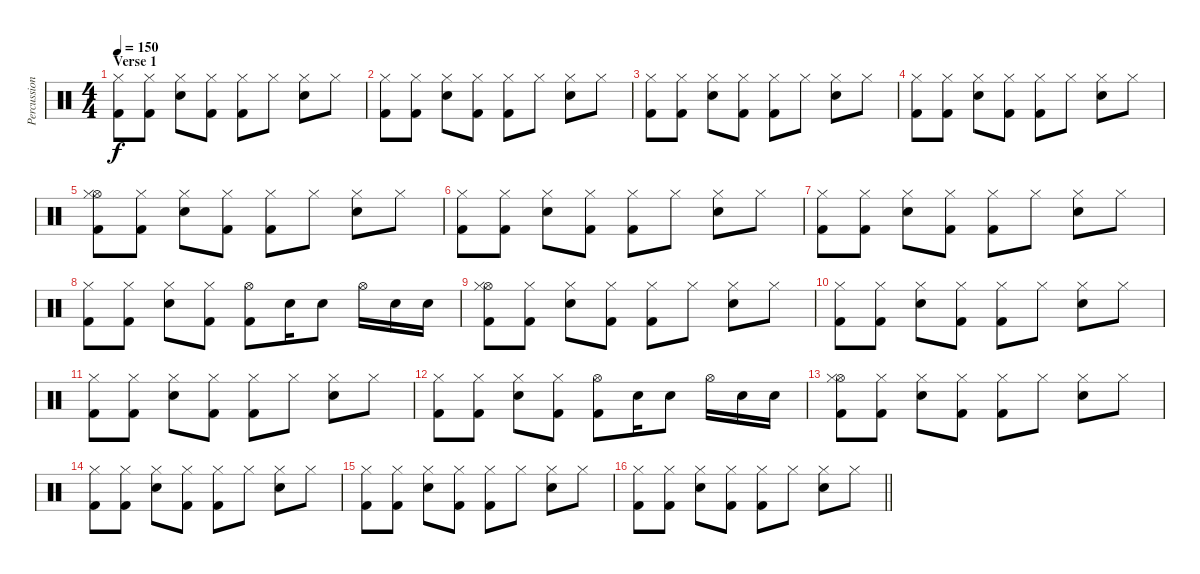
\track ("Percussion" "Percussion") {instrument percussion}
\staff {score}
\articulation defaults
\ts (4 4)
\section ("" "Verse 1")
\tempo 150
\clef neutral
\ks c
("Kick (hit) 2" "Hi-Hat (closed)").8{dy f} ("Kick (hit) 2" "Hi-Hat (closed)").8 ("Snare (hit) 2" "Hi-Hat (closed)").8 ("Kick (hit) 2" "Hi-Hat (closed)").8 ("Kick (hit) 2" "Hi-Hat (closed)").8 "Hi-Hat (closed)".8 ("Snare (hit) 2" "Hi-Hat (closed)").8 "Hi-Hat (closed)".8 |
("Kick (hit) 2" "Hi-Hat (closed)").8 ("Kick (hit) 2" "Hi-Hat (closed)").8 ("Snare (hit) 2" "Hi-Hat (closed)").8 ("Kick (hit) 2" "Hi-Hat (closed)").8 ("Kick (hit) 2" "Hi-Hat (closed)").8 "Hi-Hat (closed)".8 ("Snare (hit) 2" "Hi-Hat (closed)").8 "Hi-Hat (closed)".8 |
("Kick (hit) 2" "Hi-Hat (closed)").8 ("Kick (hit) 2" "Hi-Hat (closed)").8 ("Snare (hit) 2" "Hi-Hat (closed)").8 ("Kick (hit) 2" "Hi-Hat (closed)").8 ("Kick (hit) 2" "Hi-Hat (closed)").8 "Hi-Hat (closed)".8 ("Snare (hit) 2" "Hi-Hat (closed)").8 "Hi-Hat (closed)".8 |
("Kick (hit) 2" "Hi-Hat (closed)").8 ("Kick (hit) 2" "Hi-Hat (closed)").8 ("Snare (hit) 2" "Hi-Hat (closed)").8 ("Kick (hit) 2" "Hi-Hat (closed)").8 ("Kick (hit) 2" "Hi-Hat (closed)").8 "Hi-Hat (closed)".8 ("Snare (hit) 2" "Hi-Hat (closed)").8 "Hi-Hat (closed)".8 |
("Hi-Hat (open)" "Kick (hit) 2" "Hi-Hat (closed)").8 ("Kick (hit) 2" "Hi-Hat (closed)").8 ("Snare (hit) 2" "Hi-Hat (closed)").8 ("Kick (hit) 2" "Hi-Hat (closed)").8 ("Kick (hit) 2" "Hi-Hat (closed)").8 "Hi-Hat (closed)".8 ("Snare (hit) 2" "Hi-Hat (closed)").8 "Hi-Hat (closed)".8 |
("Kick (hit) 2" "Hi-Hat (closed)").8 ("Kick (hit) 2" "Hi-Hat (closed)").8 ("Snare (hit) 2" "Hi-Hat (closed)").8 ("Kick (hit) 2" "Hi-Hat (closed)").8 ("Kick (hit) 2" "Hi-Hat (closed)").8 "Hi-Hat (closed)".8 ("Snare (hit) 2" "Hi-Hat (closed)").8 "Hi-Hat (closed)".8 |
("Kick (hit) 2" "Hi-Hat (closed)").8 ("Kick (hit) 2" "Hi-Hat (closed)").8 ("Snare (hit) 2" "Hi-Hat (closed)").8 ("Kick (hit) 2" "Hi-Hat (closed)").8 ("Kick (hit) 2" "Hi-Hat (closed)").8 "Hi-Hat (closed)".8 ("Snare (hit) 2" "Hi-Hat (closed)").8 "Hi-Hat (closed)".8 |
("Kick (hit) 2" "Hi-Hat (closed)").8 ("Kick (hit) 2" "Hi-Hat (closed)").8 ("Snare (hit) 2" "Hi-Hat (closed)").8 ("Kick (hit) 2" "Hi-Hat (closed)").8 ("Kick (hit) 2" "Hi-Hat (open)").8 "Snare (hit) 2".16 "Snare (hit) 2".8 "Hi-Hat (open)".16 "Snare (hit) 2".16 "Snare (hit) 2".16 |
("Hi-Hat (open)" "Kick (hit) 2" "Hi-Hat (closed)").8 ("Kick (hit) 2" "Hi-Hat (closed)").8 ("Snare (hit) 2" "Hi-Hat (closed)").8 ("Kick (hit) 2" "Hi-Hat (closed)").8 ("Kick (hit) 2" "Hi-Hat (closed)").8 "Hi-Hat (closed)".8 ("Snare (hit) 2" "Hi-Hat (closed)").8 "Hi-Hat (closed)".8 |
("Kick (hit) 2" "Hi-Hat (closed)").8 ("Kick (hit) 2" "Hi-Hat (closed)").8 ("Snare (hit) 2" "Hi-Hat (closed)").8 ("Kick (hit) 2" "Hi-Hat (closed)").8 ("Kick (hit) 2" "Hi-Hat (closed)").8 "Hi-Hat (closed)".8 ("Snare (hit) 2" "Hi-Hat (closed)").8 "Hi-Hat (closed)".8 |
("Kick (hit) 2" "Hi-Hat (closed)").8 ("Kick (hit) 2" "Hi-Hat (closed)").8 ("Snare (hit) 2" "Hi-Hat (closed)").8 ("Kick (hit) 2" "Hi-Hat (closed)").8 ("Kick (hit) 2" "Hi-Hat (closed)").8 "Hi-Hat (closed)".8 ("Snare (hit) 2" "Hi-Hat (closed)").8 "Hi-Hat (closed)".8 |
("Kick (hit) 2" "Hi-Hat (closed)").8 ("Kick (hit) 2" "Hi-Hat (closed)").8 ("Snare (hit) 2" "Hi-Hat (closed)").8 ("Kick (hit) 2" "Hi-Hat (closed)").8 ("Kick (hit) 2" "Hi-Hat (open)").8 "Snare (hit) 2".16 "Snare (hit) 2".8 "Hi-Hat (open)".16 "Snare (hit) 2".16 "Snare (hit) 2".16 |
("Hi-Hat (open)" "Kick (hit) 2" "Hi-Hat (closed)").8 ("Kick (hit) 2" "Hi-Hat (closed)").8 ("Snare (hit) 2" "Hi-Hat (closed)").8 ("Kick (hit) 2" "Hi-Hat (closed)").8 ("Kick (hit) 2" "Hi-Hat (closed)").8 "Hi-Hat (closed)".8 ("Snare (hit) 2" "Hi-Hat (closed)").8 "Hi-Hat (closed)".8 |
("Kick (hit) 2" "Hi-Hat (closed)").8 ("Kick (hit) 2" "Hi-Hat (closed)").8 ("Snare (hit) 2" "Hi-Hat (closed)").8 ("Kick (hit) 2" "Hi-Hat (closed)").8 ("Kick (hit) 2" "Hi-Hat (closed)").8 "Hi-Hat (closed)".8 ("Snare (hit) 2" "Hi-Hat (closed)").8 "Hi-Hat (closed)".8 |
("Kick (hit) 2" "Hi-Hat (closed)").8 ("Kick (hit) 2" "Hi-Hat (closed)").8 ("Snare (hit) 2" "Hi-Hat (closed)").8 ("Kick (hit) 2" "Hi-Hat (closed)").8 ("Kick (hit) 2" "Hi-Hat (closed)").8 "Hi-Hat (closed)".8 ("Snare (hit) 2" "Hi-Hat (closed)").8 "Hi-Hat (closed)".8 |
\barLineRight lightlight
("Kick (hit) 2" "Hi-Hat (closed)").8 ("Kick (hit) 2" "Hi-Hat (closed)").8 ("Snare (hit) 2" "Hi-Hat (closed)").8 ("Kick (hit) 2" "Hi-Hat (closed)").8 ("Kick (hit) 2" "Hi-Hat (closed)").8 "Hi-Hat (closed)".8 ("Snare (hit) 2" "Hi-Hat (closed)").8 "Hi-Hat (closed)".8
